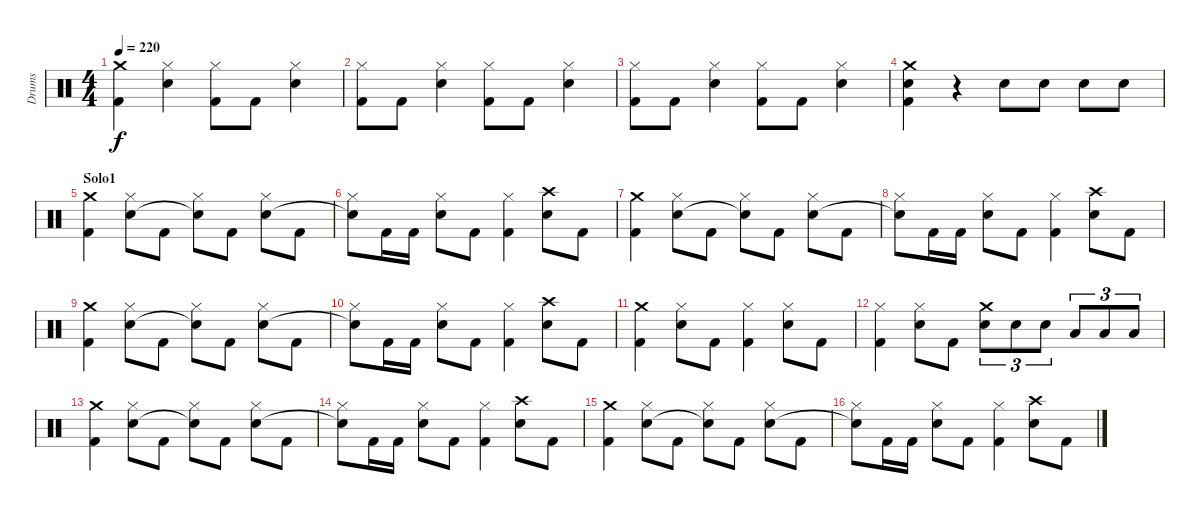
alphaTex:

\track ("Drums" "Drums") {instrument percussion}
\staff {score}
\articulation defaults
\ts (4 4)
\tempo 220
\clef neutral
\ks c
("Crash medium (hit)" "Kick (hit) 2").4{dy f} ("Hi-Hat (closed)" "Electric Snare (hit)").4 ("Hi-Hat (closed)" "Kick (hit) 2").8 "Kick (hit) 2".8 ("Hi-Hat (closed)" "Electric Snare (hit)").4 |
("Hi-Hat (closed)" "Kick (hit) 2").8 "Kick (hit) 2".8 ("Hi-Hat (closed)" "Electric Snare (hit)").4 ("Hi-Hat (closed)" "Kick (hit) 2").8 "Kick (hit) 2".8 ("Hi-Hat (closed)" "Electric Snare (hit)").4 |
("Hi-Hat (closed)" "Kick (hit) 2").8 "Kick (hit) 2".8 ("Hi-Hat (closed)" "Electric Snare (hit)").4 ("Hi-Hat (closed)" "Kick (hit) 2").8 "Kick (hit) 2".8 ("Hi-Hat (closed)" "Electric Snare (hit)").4 |
("Crash medium (hit)" "Electric Snare (hit)" "Kick (hit) 2").4 r.4 "Electric Snare (hit)".8 "Electric Snare (hit)".8 "Electric Snare (hit)".8 "Electric Snare (hit)".8 |
\section ("" "Solo1")
("Crash medium (hit)" "Kick (hit) 2").4 ("Hi-Hat (closed)" "Electric Snare (hit)").8 "Kick (hit) 2".8 ("Hi-Hat (closed)" "Snare (hit)"{t}).8 "Kick (hit) 2".8 ("Hi-Hat (closed)" "Electric Snare (hit)").8 "Kick (hit) 2".8 |
("Hi-Hat (closed)" "Snare (hit)"{t}).8 "Kick (hit) 2".16 "Kick (hit) 2".16 ("Hi-Hat (closed)" "Electric Snare (hit)").8 "Kick (hit) 2".8 ("Hi-Hat (closed)" "Kick (hit) 2").4 ("Crash high (hit)" "Electric Snare (hit)").8 "Kick (hit) 2".8 |
("Crash medium (hit)" "Kick (hit) 2").4 ("Hi-Hat (closed)" "Electric Snare (hit)").8 "Kick (hit) 2".8 ("Hi-Hat (closed)" "Snare (hit)"{t}).8 "Kick (hit) 2".8 ("Hi-Hat (closed)" "Electric Snare (hit)").8 "Kick (hit) 2".8 |
("Hi-Hat (closed)" "Snare (hit)"{t}).8 "Kick (hit) 2".16 "Kick (hit) 2".16 ("Hi-Hat (closed)" "Electric Snare (hit)").8 "Kick (hit) 2".8 ("Hi-Hat (closed)" "Kick (hit) 2").4 ("Crash high (hit)" "Electric Snare (hit)").8 "Kick (hit) 2".8 |
("Crash medium (hit)" "Kick (hit) 2").4 ("Hi-Hat (closed)" "Electric Snare (hit)").8 "Kick (hit) 2".8 ("Hi-Hat (closed)" "Snare (hit)"{t}).8 "Kick (hit) 2".8 ("Hi-Hat (closed)" "Electric Snare (hit)").8 "Kick (hit) 2".8 |
("Hi-Hat (closed)" "Snare (hit)"{t}).8 "Kick (hit) 2".16 "Kick (hit) 2".16 ("Hi-Hat (closed)" "Electric Snare (hit)").8 "Kick (hit) 2".8 ("Hi-Hat (closed)" "Kick (hit) 2").4 ("Crash high (hit)" "Electric Snare (hit)").8 "Kick (hit) 2".8 |
("Crash medium (hit)" "Kick (hit) 2").4 ("Hi-Hat (closed)" "Electric Snare (hit)").8 "Kick (hit) 2".8 ("Hi-Hat (closed)" "Kick (hit) 2").4 ("Hi-Hat (closed)" "Electric Snare (hit)").8 "Kick (hit) 2".8 |
("Hi-Hat (closed)" "Kick (hit) 2").4 ("Hi-Hat (closed)" "Electric Snare (hit)").8 "Kick (hit) 2".8 ("Crash medium (hit)" "Electric Snare (hit)").8{tu (3 2)} "Electric Snare (hit)".8{tu (3 2)} "Electric Snare (hit)".8{tu (3 2)} "Low Tom (hit)".8{tu (3 2)} "Low Tom (hit)".8{tu (3 2)} "Low Tom (hit)".8{tu (3 2)} |
("Crash medium (hit)" "Kick (hit) 2").4 ("Hi-Hat (closed)" "Electric Snare (hit)").8 "Kick (hit) 2".8 ("Hi-Hat (closed)" "Snare (hit)"{t}).8 "Kick (hit) 2".8 ("Hi-Hat (closed)" "Electric Snare (hit)").8 "Kick (hit) 2".8 |
("Hi-Hat (closed)" "Snare (hit)"{t}).8 "Kick (hit) 2".16 "Kick (hit) 2".16 ("Hi-Hat (closed)" "Electric Snare (hit)").8 "Kick (hit) 2".8 ("Hi-Hat (closed)" "Kick (hit) 2").4 ("Crash high (hit)" "Electric Snare (hit)").8 "Kick (hit) 2".8 |
("Crash medium (hit)" "Kick (hit) 2").4 ("Hi-Hat (closed)" "Electric Snare (hit)").8 "Kick (hit) 2".8 ("Hi-Hat (closed)" "Snare (hit)"{t}).8 "Kick (hit) 2".8 ("Hi-Hat (closed)" "Electric Snare (hit)").8 "Kick (hit) 2".8 |
("Hi-Hat (closed)" "Snare (hit)"{t}).8 "Kick (hit) 2".16 "Kick (hit) 2".16 ("Hi-Hat (closed)" "Electric Snare (hit)").8 "Kick (hit) 2".8 ("Hi-Hat (closed)" "Kick (hit) 2").4 ("Crash high (hit)" "Electric Snare (hit)").8 "Kick (hit) 2".8
